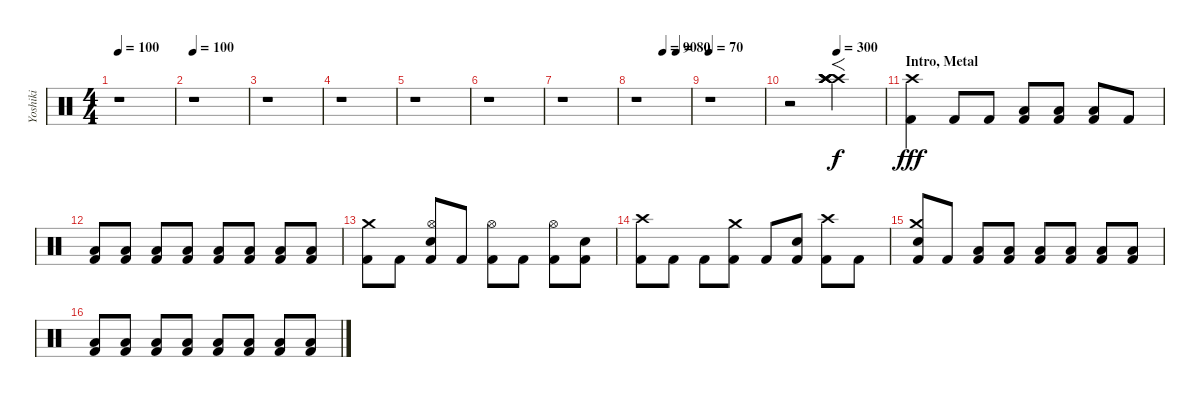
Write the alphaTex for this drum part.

\track ("Yoshiki" "Yoshiki") {instrument percussion}
\staff {score}
\articulation defaults
\ts (4 4)
\tempo 100
\clef neutral
\ks c
r.1{dy f} |
\tempo 100
r.1 |
r.1 |
r.1 |
r.1 |
r.1 |
r.1 |
\tempo (90 0.5)
\tempo (80 0.75)
r.1 |
\tempo 70
r.1 |
\tempo (300 0.5)
r.2 ("Crash high (hit)" "Crash high (hit)" "Crash high (hit)" "Crash high (hit)" "Crash high (hit)").2{f} |
\section ("" "Intro, Metal")
("Crash high (hit)" "Kick (hit) 2").4{dy fff} "Kick (hit) 2".8 "Kick (hit) 2".8 ("Low Floor Tom (hit)" "Kick (hit) 2").8 ("Low Floor Tom (hit)" "Kick (hit) 2").8 ("Low Floor Tom (hit)" "Kick (hit) 2").8 "Kick (hit) 2".8 |
("Low Floor Tom (hit)" "Kick (hit) 2").8 ("Low Floor Tom (hit)" "Kick (hit) 2").8 ("Low Floor Tom (hit)" "Kick (hit) 2").8 ("Low Floor Tom (hit)" "Kick (hit) 2").8 ("Low Floor Tom (hit)" "Kick (hit) 2").8 ("Low Floor Tom (hit)" "Kick (hit) 2").8 ("Low Floor Tom (hit)" "Kick (hit) 2").8 ("Low Floor Tom (hit)" "Kick (hit) 2").8 |
("Crash medium (hit)" "Kick (hit) 2").8 "Kick (hit) 2".8 ("Hi-Hat (open)" "Snare (hit) 2" "Kick (hit) 2").8 "Kick (hit) 2".8 ("Hi-Hat (open)" "Kick (hit) 2").8 "Kick (hit) 2".8 ("Hi-Hat (open)" "Kick (hit) 2").8 ("Snare (hit) 2" "Kick (hit) 2").8 |
("Crash high (hit)" "Kick (hit) 2").8 "Kick (hit) 2".8 "Kick (hit) 2".8 ("Crash medium (hit)" "Kick (hit) 2").8 "Kick (hit) 2".8 ("Snare (hit) 2" "Kick (hit) 2").8 ("Crash high (hit)" "Kick (hit) 2").8 "Kick (hit) 2".8 |
("Crash medium (hit)" "Snare (hit) 2" "Kick (hit) 2").8 "Kick (hit) 2".8 ("Low Floor Tom (hit)" "Kick (hit) 2").8 ("Low Floor Tom (hit)" "Kick (hit) 2").8 ("Low Floor Tom (hit)" "Kick (hit) 2").8 ("Low Floor Tom (hit)" "Kick (hit) 2").8 ("Low Floor Tom (hit)" "Kick (hit) 2").8 ("Low Floor Tom (hit)" "Kick (hit) 2").8 |
("Low Floor Tom (hit)" "Kick (hit) 2").8 ("Low Floor Tom (hit)" "Kick (hit) 2").8 ("Low Floor Tom (hit)" "Kick (hit) 2").8 ("Low Floor Tom (hit)" "Kick (hit) 2").8 ("Low Floor Tom (hit)" "Kick (hit) 2").8 ("Low Floor Tom (hit)" "Kick (hit) 2").8 ("Low Floor Tom (hit)" "Kick (hit) 2").8 ("Low Floor Tom (hit)" "Kick (hit) 2").8
